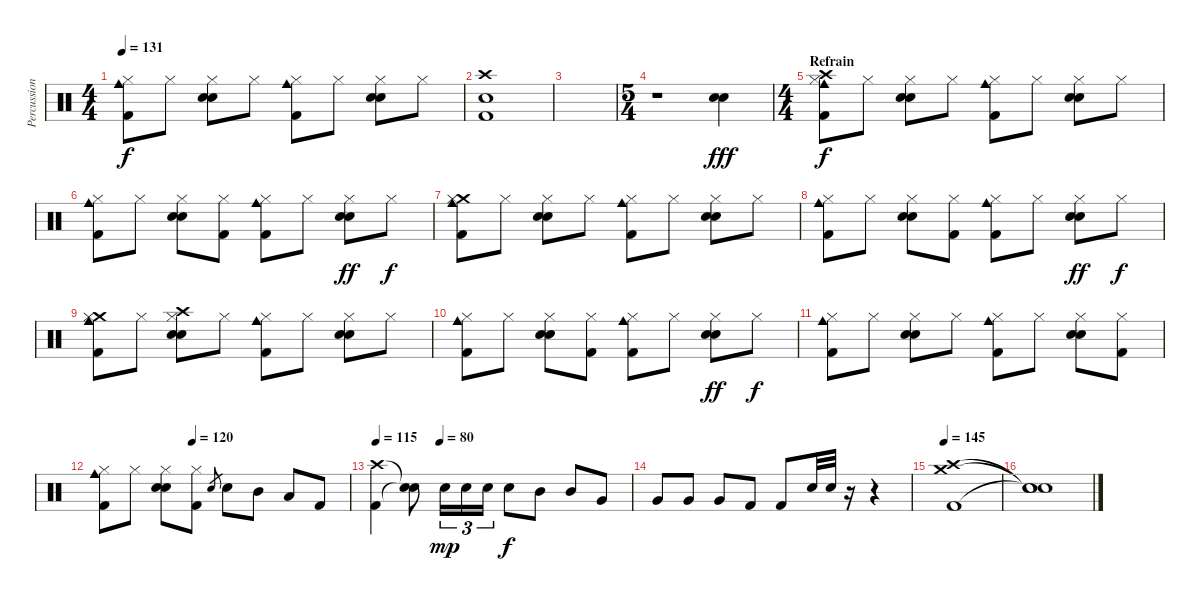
\track ("Percussion" "Percussion") {instrument percussion}
\staff {score}
\articulation defaults
\ts (4 4)
\tempo 131
\clef neutral
\ks c
("Hi-Hat (closed)" "Cowbell medium (hit)" "Kick (hit) 2").8{dy f} "Hi-Hat (closed)".8 ("Hand Clap (hit)" "Hi-Hat (closed)" "Electric Snare (hit)").8 "Hi-Hat (closed)".8 ("Hi-Hat (closed)" "Cowbell medium (hit)" "Kick (hit) 2").8 "Hi-Hat (closed)".8 ("Hand Clap (hit)" "Hi-Hat (closed)" "Electric Snare (hit)").8 "Hi-Hat (closed)".8 |
("Crash high (hit)" "Electric Snare (hit)" "Kick (hit) 2").1 |
|
\ts (5 4)
r.1 ("Electric Snare (hit)" "Electric Snare (hit)").4{dy fff} |
\ts (4 4)
\section ("" "Refrain")
("Crash high (hit)" "Hi-Hat (closed)" "Cowbell medium (hit)" "Kick (hit) 2").8{dy f} "Hi-Hat (closed)".8 ("Hand Clap (hit)" "Hi-Hat (closed)" "Electric Snare (hit)").8 "Hi-Hat (closed)".8 ("Hi-Hat (closed)" "Cowbell medium (hit)" "Kick (hit) 2").8 "Hi-Hat (closed)".8 ("Hand Clap (hit)" "Hi-Hat (closed)" "Electric Snare (hit)").8 "Hi-Hat (closed)".8 |
("Hi-Hat (closed)" "Cowbell medium (hit)" "Kick (hit) 2").8 "Hi-Hat (closed)".8 ("Hand Clap (hit)" "Hi-Hat (closed)" "Electric Snare (hit)").8 ("Hi-Hat (closed)" "Kick (hit) 2").8 ("Hi-Hat (closed)" "Cowbell medium (hit)" "Kick (hit) 2").8 "Hi-Hat (closed)".8 ("Hand Clap (hit)" "Hi-Hat (closed)" "Electric Snare (hit)").8{dy ff} "Hi-Hat (closed)".8{dy f} |
("Crash medium (hit)" "Hi-Hat (closed)" "Cowbell medium (hit)" "Kick (hit) 2").8 "Hi-Hat (closed)".8 ("Hand Clap (hit)" "Hi-Hat (closed)" "Electric Snare (hit)").8 "Hi-Hat (closed)".8 ("Hi-Hat (closed)" "Cowbell medium (hit)" "Kick (hit) 2").8 "Hi-Hat (closed)".8 ("Hand Clap (hit)" "Hi-Hat (closed)" "Electric Snare (hit)").8 "Hi-Hat (closed)".8 |
("Hi-Hat (closed)" "Cowbell medium (hit)" "Kick (hit) 2").8 "Hi-Hat (closed)".8 ("Hand Clap (hit)" "Hi-Hat (closed)" "Electric Snare (hit)").8 ("Hi-Hat (closed)" "Kick (hit) 2").8 ("Hi-Hat (closed)" "Cowbell medium (hit)" "Kick (hit) 2").8 "Hi-Hat (closed)".8 ("Hand Clap (hit)" "Hi-Hat (closed)" "Electric Snare (hit)").8{dy ff} "Hi-Hat (closed)".8{dy f} |
("Crash medium (hit)" "Hi-Hat (closed)" "Cowbell medium (hit)" "Kick (hit) 2").8 "Hi-Hat (closed)".8 ("Crash high (hit)" "Hi-Hat (closed)" "Electric Snare (hit)" "Hand Clap (hit)").8 "Hi-Hat (closed)".8 ("Hi-Hat (closed)" "Cowbell medium (hit)" "Kick (hit) 2").8 "Hi-Hat (closed)".8 ("Hand Clap (hit)" "Hi-Hat (closed)" "Electric Snare (hit)").8 "Hi-Hat (closed)".8 |
("Hi-Hat (closed)" "Cowbell medium (hit)" "Kick (hit) 2").8 "Hi-Hat (closed)".8 ("Hand Clap (hit)" "Hi-Hat (closed)" "Electric Snare (hit)").8 ("Hi-Hat (closed)" "Kick (hit) 2").8 ("Hi-Hat (closed)" "Cowbell medium (hit)" "Kick (hit) 2").8 "Hi-Hat (closed)".8 ("Hand Clap (hit)" "Hi-Hat (closed)" "Electric Snare (hit)").8{dy ff} "Hi-Hat (closed)".8{dy f} |
("Hi-Hat (closed)" "Cowbell medium (hit)" "Kick (hit) 2").8 "Hi-Hat (closed)".8 ("Hand Clap (hit)" "Hi-Hat (closed)" "Electric Snare (hit)").8 "Hi-Hat (closed)".8 ("Hi-Hat (closed)" "Cowbell medium (hit)" "Kick (hit) 2").8 "Hi-Hat (closed)".8 ("Hand Clap (hit)" "Hi-Hat (closed)" "Electric Snare (hit)").8 ("Hi-Hat (closed)" "Kick (hit) 2").8 |
\tempo (120 0.375)
("Hi-Hat (closed)" "Cowbell medium (hit)" "Kick (hit) 2").8 "Hi-Hat (closed)".8 ("Hand Clap (hit)" "Hi-Hat (closed)" "Electric Snare (hit)").8 ("Hi-Hat (closed)" "Kick (hit) 2").8 "Electric Snare (hit)".8{gr} "Electric Snare (hit)".8{volume 16} "Mid Tom (hit)".8 "Low Tom (hit)".8 "Kick (hit) 2".8 |
\tempo 115
\tempo (80 0.25)
("Crash high (hit)" "Kick (hit) 2").4 ("Snare (hit)"{t} "Snare (hit)"{t}).8 "Electric Snare (hit)".16{tu (3 2) dy mp} "Electric Snare (hit)".16{tu (3 2)} "Electric Snare (hit)".16{tu (3 2)} "Electric Snare (hit)".8{dy f} "Mid Tom (hit)".8{balance 0} "Mid Tom (hit)".8 "Very Low Tom (hit)".8{balance 16} |
"Very Low Tom (hit)".8 "Very Low Tom (hit)".8 "Very Low Tom (hit)".8 "Kick (hit) 2".8{balance 8} "Kick (hit) 2".8 "Electric Snare (hit)".32 "Electric Snare (hit)".32 r.16 r.4 |
\tempo 145
("Crash high (hit)" "Crash medium (hit)" "Kick (hit) 2").1 |
("Snare (hit)"{t} "Snare (hit)"{t} "Snare (hit)"{t}).1
